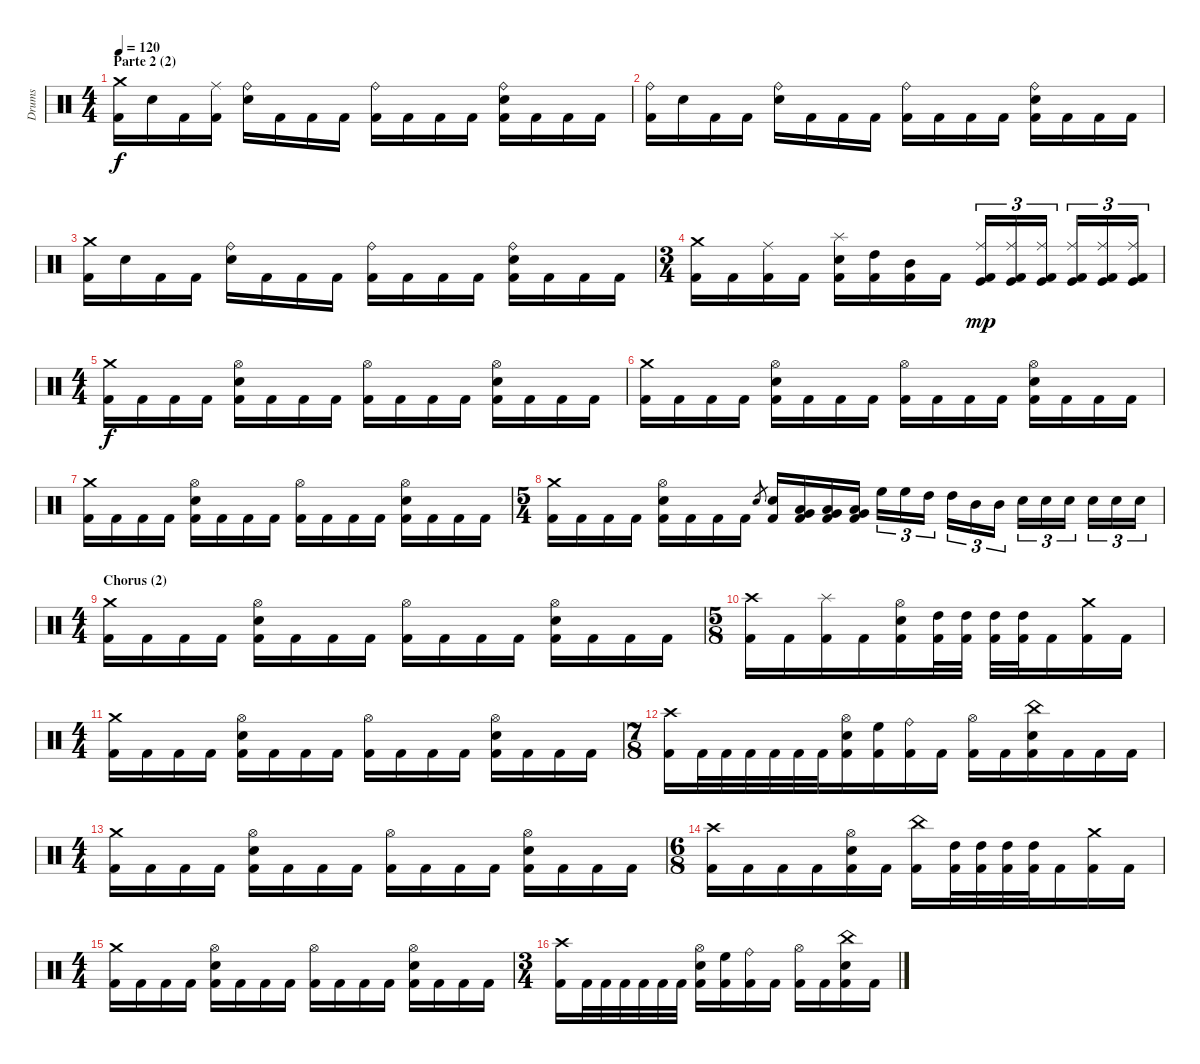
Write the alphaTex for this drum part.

\track ("Drums" "Drums") {instrument percussion}
\staff {score}
\articulation defaults
\ts (4 4)
\section ("" "Parte 2 (2)")
\tempo 120
\clef neutral
\ks c
("Crash medium (hit)" "Kick (hit) 2").16{dy f} "Electric Snare (hit)".16 "Kick (hit) 2".16 ("Ride (middle)" "Kick (hit) 2").16 ("Ride (bell)" "Electric Snare (hit)").16 "Kick (hit) 2".16 "Kick (hit) 2".16 "Kick (hit) 2".16 ("Ride (bell)" "Kick (hit) 2").16 "Kick (hit) 2".16 "Kick (hit) 2".16 "Kick (hit) 2".16 ("Ride (bell)" "Electric Snare (hit)" "Kick (hit) 2").16 "Kick (hit) 2".16 "Kick (hit) 2".16 "Kick (hit) 2".16 |
("Ride (bell)" "Kick (hit) 2").16 "Electric Snare (hit)".16 "Kick (hit) 2".16 "Kick (hit) 2".16 ("Ride (bell)" "Electric Snare (hit)").16 "Kick (hit) 2".16 "Kick (hit) 2".16 "Kick (hit) 2".16 ("Ride (bell)" "Kick (hit) 2").16 "Kick (hit) 2".16 "Kick (hit) 2".16 "Kick (hit) 2".16 ("Ride (bell)" "Electric Snare (hit)" "Kick (hit) 2").16 "Kick (hit) 2".16 "Kick (hit) 2".16 "Kick (hit) 2".16 |
("Crash medium (hit)" "Kick (hit) 2").16 "Electric Snare (hit)".16 "Kick (hit) 2".16 "Kick (hit) 2".16 ("Ride (bell)" "Electric Snare (hit)").16 "Kick (hit) 2".16 "Kick (hit) 2".16 "Kick (hit) 2".16 ("Ride (bell)" "Kick (hit) 2").16 "Kick (hit) 2".16 "Kick (hit) 2".16 "Kick (hit) 2".16 ("Ride (bell)" "Electric Snare (hit)" "Kick (hit) 2").16 "Kick (hit) 2".16 "Kick (hit) 2".16 "Kick (hit) 2".16 |
\ts (3 4)
("Crash medium (hit)" "Kick (hit) 2").16 "Kick (hit) 2".16 ("Ride (middle)" "Kick (hit) 2").16 "Kick (hit) 2".16 ("Splash (hit)" "Electric Snare (hit)" "Kick (hit) 2").16 ("High Tom (hit)" "Kick (hit) 2").16 ("Mid Tom (hit)" "Kick (hit) 2").16 "Kick (hit) 2".16 ("Ride (middle)" "Kick (hit) 2" "Kick (hit)").16{tu (3 2) dy mp} ("Ride (middle)" "Kick (hit) 2" "Kick (hit)").16{tu (3 2)} ("Ride (middle)" "Kick (hit) 2" "Kick (hit)").16{tu (3 2)} ("Ride (middle)" "Kick (hit) 2" "Kick (hit)").16{tu (3 2)} ("Ride (middle)" "Kick (hit) 2" "Kick (hit)").16{tu (3 2)} ("Ride (middle)" "Kick (hit) 2" "Kick (hit)").16{tu (3 2)} |
\ts (4 4)
("Crash medium (hit)" "Kick (hit) 2").16{dy f} "Kick (hit) 2".16 "Kick (hit) 2".16 "Kick (hit) 2".16 ("Hi-Hat (open)" "Electric Snare (hit)" "Kick (hit) 2").16 "Kick (hit) 2".16 "Kick (hit) 2".16 "Kick (hit) 2".16 ("Hi-Hat (open)" "Kick (hit) 2").16 "Kick (hit) 2".16 "Kick (hit) 2".16 "Kick (hit) 2".16 ("Hi-Hat (open)" "Electric Snare (hit)" "Kick (hit) 2").16 "Kick (hit) 2".16 "Kick (hit) 2".16 "Kick (hit) 2".16 |
("Crash medium (hit)" "Kick (hit) 2").16 "Kick (hit) 2".16 "Kick (hit) 2".16 "Kick (hit) 2".16 ("Hi-Hat (open)" "Electric Snare (hit)" "Kick (hit) 2").16 "Kick (hit) 2".16 "Kick (hit) 2".16 "Kick (hit) 2".16 ("Hi-Hat (open)" "Kick (hit) 2").16 "Kick (hit) 2".16 "Kick (hit) 2".16 "Kick (hit) 2".16 ("Hi-Hat (open)" "Electric Snare (hit)" "Kick (hit) 2").16 "Kick (hit) 2".16 "Kick (hit) 2".16 "Kick (hit) 2".16 |
("Crash medium (hit)" "Kick (hit) 2").16 "Kick (hit) 2".16 "Kick (hit) 2".16 "Kick (hit) 2".16 ("Hi-Hat (open)" "Electric Snare (hit)" "Kick (hit) 2").16 "Kick (hit) 2".16 "Kick (hit) 2".16 "Kick (hit) 2".16 ("Hi-Hat (open)" "Kick (hit) 2").16 "Kick (hit) 2".16 "Kick (hit) 2".16 "Kick (hit) 2".16 ("Hi-Hat (open)" "Electric Snare (hit)" "Kick (hit) 2").16 "Kick (hit) 2".16 "Kick (hit) 2".16 "Kick (hit) 2".16 |
\ts (5 4)
("Crash medium (hit)" "Kick (hit) 2").16 "Kick (hit) 2".16 "Kick (hit) 2".16 "Kick (hit) 2".16 ("Hi-Hat (open)" "Electric Snare (hit)" "Kick (hit) 2").16 "Kick (hit) 2".16 "Kick (hit) 2".16 "Kick (hit) 2".16 "Electric Snare (hit)".8{gr} ("Electric Snare (hit)" "Kick (hit) 2").16 ("Low Floor Tom (hit)" "Very Low Tom (hit)" "Kick (hit) 2").16 ("Low Floor Tom (hit)" "Very Low Tom (hit)" "Kick (hit) 2").16 ("Low Floor Tom (hit)" "Very Low Tom (hit)" "Kick (hit) 2").16 "High Floor Tom (hit)".16{tu (3 2)} "High Floor Tom (hit)".16{tu (3 2)} "High Tom (hit)".16{tu (3 2)} "High Tom (hit)".16{tu (3 2)} "Mid Tom (hit)".16{tu (3 2)} "Mid Tom (hit)".16{tu (3 2)} "Electric Snare (hit)".16{tu (3 2)} "Electric Snare (hit)".16{tu (3 2)} "Electric Snare (hit)".16{tu (3 2)} "Electric Snare (hit)".16{tu (3 2)} "Electric Snare (hit)".16{tu (3 2)} "Electric Snare (hit)".16{tu (3 2)} |
\ts (4 4)
\section ("" "Chorus (2)")
("Crash medium (hit)" "Kick (hit) 2").16 "Kick (hit) 2".16 "Kick (hit) 2".16 "Kick (hit) 2".16 ("Hi-Hat (open)" "Electric Snare (hit)" "Kick (hit) 2").16 "Kick (hit) 2".16 "Kick (hit) 2".16 "Kick (hit) 2".16 ("Hi-Hat (open)" "Kick (hit) 2").16 "Kick (hit) 2".16 "Kick (hit) 2".16 "Kick (hit) 2".16 ("Hi-Hat (open)" "Electric Snare (hit)" "Kick (hit) 2").16 "Kick (hit) 2".16 "Kick (hit) 2".16 "Kick (hit) 2".16 |
\ts (5 8)
("Crash high (hit)" "Kick (hit) 2").16 "Kick (hit) 2".16 ("Splash (hit)" "Kick (hit) 2").16 "Kick (hit) 2".16 ("Hi-Hat (open)" "Electric Snare (hit)" "Kick (hit) 2").16 ("High Tom (hit)" "Kick (hit) 2").32 ("High Tom (hit)" "Kick (hit) 2").32 ("High Tom (hit)" "Kick (hit) 2").32 ("High Tom (hit)" "Kick (hit) 2").32 "Kick (hit) 2".16 ("Crash medium (hit)" "Kick (hit) 2").16 "Kick (hit) 2".16 |
\ts (4 4)
("Crash medium (hit)" "Kick (hit) 2").16 "Kick (hit) 2".16 "Kick (hit) 2".16 "Kick (hit) 2".16 ("Hi-Hat (open)" "Electric Snare (hit)" "Kick (hit) 2").16 "Kick (hit) 2".16 "Kick (hit) 2".16 "Kick (hit) 2".16 ("Hi-Hat (open)" "Kick (hit) 2").16 "Kick (hit) 2".16 "Kick (hit) 2".16 "Kick (hit) 2".16 ("Hi-Hat (open)" "Electric Snare (hit)" "Kick (hit) 2").16 "Kick (hit) 2".16 "Kick (hit) 2".16 "Kick (hit) 2".16 |
\ts (7 8)
("Crash high (hit)" "Kick (hit) 2").16 "Kick (hit) 2".32 "Kick (hit) 2".32 "Kick (hit) 2".32 "Kick (hit) 2".32 "Kick (hit) 2".32 "Kick (hit) 2".32 ("Hi-Hat (open)" "Electric Snare (hit)" "Kick (hit) 2").16 ("High Floor Tom (hit)" "Kick (hit) 2").16 ("Ride (bell)" "Kick (hit) 2").16 "Kick (hit) 2".16 ("Hi-Hat (open)" "Kick (hit) 2").16 "Kick (hit) 2".16 ("China (hit)" "Electric Snare (hit)" "Kick (hit) 2").16 "Kick (hit) 2".16 "Kick (hit) 2".16 "Kick (hit) 2".16 |
\ts (4 4)
("Crash medium (hit)" "Kick (hit) 2").16 "Kick (hit) 2".16 "Kick (hit) 2".16 "Kick (hit) 2".16 ("Hi-Hat (open)" "Electric Snare (hit)" "Kick (hit) 2").16 "Kick (hit) 2".16 "Kick (hit) 2".16 "Kick (hit) 2".16 ("Hi-Hat (open)" "Kick (hit) 2").16 "Kick (hit) 2".16 "Kick (hit) 2".16 "Kick (hit) 2".16 ("Hi-Hat (open)" "Electric Snare (hit)" "Kick (hit) 2").16 "Kick (hit) 2".16 "Kick (hit) 2".16 "Kick (hit) 2".16 |
\ts (6 8)
("Crash high (hit)" "Kick (hit) 2").16 "Kick (hit) 2".16 "Kick (hit) 2".16 "Kick (hit) 2".16 ("Hi-Hat (open)" "Electric Snare (hit)" "Kick (hit) 2").16 "Kick (hit) 2".16 ("China (hit)" "Kick (hit) 2").16 ("High Tom (hit)" "Kick (hit) 2").32 ("High Tom (hit)" "Kick (hit) 2").32 ("High Tom (hit)" "Kick (hit) 2").32 ("High Tom (hit)" "Kick (hit) 2").32 "Kick (hit) 2".16 ("Crash medium (hit)" "Kick (hit) 2").16 "Kick (hit) 2".16 |
\ts (4 4)
("Crash medium (hit)" "Kick (hit) 2").16 "Kick (hit) 2".16 "Kick (hit) 2".16 "Kick (hit) 2".16 ("Hi-Hat (open)" "Electric Snare (hit)" "Kick (hit) 2").16 "Kick (hit) 2".16 "Kick (hit) 2".16 "Kick (hit) 2".16 ("Hi-Hat (open)" "Kick (hit) 2").16 "Kick (hit) 2".16 "Kick (hit) 2".16 "Kick (hit) 2".16 ("Hi-Hat (open)" "Electric Snare (hit)" "Kick (hit) 2").16 "Kick (hit) 2".16 "Kick (hit) 2".16 "Kick (hit) 2".16 |
\ts (3 4)
("Crash high (hit)" "Kick (hit) 2").16 "Kick (hit) 2".32 "Kick (hit) 2".32 "Kick (hit) 2".32 "Kick (hit) 2".32 "Kick (hit) 2".32 "Kick (hit) 2".32 ("Hi-Hat (open)" "Electric Snare (hit)" "Kick (hit) 2").16 ("High Floor Tom (hit)" "Kick (hit) 2").16 ("Ride (bell)" "Kick (hit) 2").16 "Kick (hit) 2".16 ("Hi-Hat (open)" "Kick (hit) 2").16 "Kick (hit) 2".16 ("China (hit)" "Electric Snare (hit)" "Kick (hit) 2").16 "Kick (hit) 2".16
